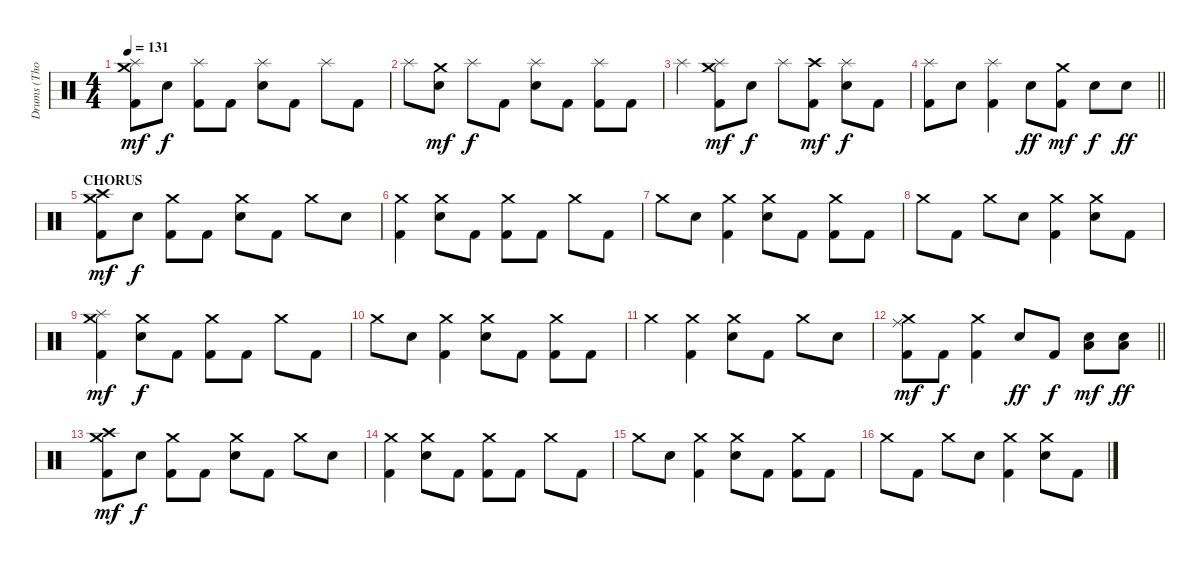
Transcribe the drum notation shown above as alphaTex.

\track ("Drums (Thomas Haake)" "Drums (Tho") {instrument percussion}
\staff {score}
\articulation defaults
\ts (4 4)
\tempo 131
\clef neutral
\ks c
("Splash (hit)" "Crash medium (hit)" "Kick (hit) 2").8{dy mf} "Electric Snare (hit)".8{dy f} ("Splash (hit)" "Kick (hit) 2").8 "Kick (hit) 2".8 ("Splash (hit)" "Electric Snare (hit)").8 "Kick (hit) 2".8 "Splash (hit)".8 "Kick (hit) 2".8 |
"Splash (hit)".8 ("Crash medium (hit)" "Electric Snare (hit)").8{dy mf} "Splash (hit)".8{dy f} "Kick (hit) 2".8 ("Splash (hit)" "Electric Snare (hit)").8 "Kick (hit) 2".8 ("Splash (hit)" "Kick (hit) 2").8 "Kick (hit) 2".8 |
"Splash (hit)".4 ("Splash (hit)" "Crash medium (hit)" "Kick (hit) 2").8{dy mf} "Electric Snare (hit)".8{dy f} "Splash (hit)".8 ("Crash high (hit)" "Kick (hit) 2").8{dy mf} ("Splash (hit)" "Electric Snare (hit)").8{dy f} "Kick (hit) 2".8 |
\barLineRight lightlight
("Splash (hit)" "Kick (hit) 2").8 "Electric Snare (hit)".8 ("Splash (hit)" "Kick (hit) 2").4 "Electric Snare (hit)".8{dy ff} ("Crash medium (hit)" "Kick (hit) 2").8{dy mf} "Electric Snare (hit)".8{dy f} "Electric Snare (hit)".8{dy ff} |
\section ("" "CHORUS")
("Crash medium (hit)" "Crash high (hit)" "Kick (hit) 2").8{dy mf} "Electric Snare (hit)".8{dy f} ("Crash medium (hit)" "Kick (hit) 2").8 "Kick (hit) 2".8 ("Crash medium (hit)" "Electric Snare (hit)").8 "Kick (hit) 2".8 "Crash medium (hit)".8 "Electric Snare (hit)".8 |
("Crash medium (hit)" "Kick (hit) 2").4 ("Crash medium (hit)" "Electric Snare (hit)").8 "Kick (hit) 2".8 ("Crash medium (hit)" "Kick (hit) 2").8 "Kick (hit) 2".8 "Crash medium (hit)".8 "Kick (hit) 2".8 |
"Crash medium (hit)".8 "Electric Snare (hit)".8 ("Crash medium (hit)" "Kick (hit) 2").4 ("Crash medium (hit)" "Electric Snare (hit)").8 "Kick (hit) 2".8 ("Crash medium (hit)" "Kick (hit) 2").8 "Kick (hit) 2".8 |
"Crash medium (hit)".8 "Kick (hit) 2".8 "Crash medium (hit)".8 "Electric Snare (hit)".8 ("Crash medium (hit)" "Kick (hit) 2").4 ("Crash medium (hit)" "Electric Snare (hit)").8 "Kick (hit) 2".8 |
("Crash medium (hit)" "Splash (hit)" "Kick (hit) 2").4{dy mf} ("Crash medium (hit)" "Electric Snare (hit)").8{dy f} "Kick (hit) 2".8 ("Crash medium (hit)" "Kick (hit) 2").8 "Kick (hit) 2".8 "Crash medium (hit)".8 "Kick (hit) 2".8 |
"Crash medium (hit)".8 "Electric Snare (hit)".8 ("Crash medium (hit)" "Kick (hit) 2").4 ("Crash medium (hit)" "Electric Snare (hit)").8 "Kick (hit) 2".8 ("Crash medium (hit)" "Kick (hit) 2").8 "Kick (hit) 2".8 |
"Crash medium (hit)".4 ("Crash medium (hit)" "Kick (hit) 2").4 ("Crash medium (hit)" "Electric Snare (hit)").8 "Kick (hit) 2".8 "Crash medium (hit)".8 "Electric Snare (hit)".8 |
\barLineRight lightlight
("Crash medium (hit)" "Ride (middle)" "Kick (hit) 2").8{dy mf} "Kick (hit) 2".8{dy f} ("Crash medium (hit)" "Kick (hit) 2").4 "Electric Snare (hit)".8{dy ff} "Kick (hit) 2".8{dy f} ("Low Floor Tom (hit)" "Electric Snare (hit)").8{dy mf} ("Low Floor Tom (hit)" "Electric Snare (hit)").8{dy ff} |
("Crash medium (hit)" "Crash high (hit)" "Kick (hit) 2").8{dy mf} "Electric Snare (hit)".8{dy f} ("Crash medium (hit)" "Kick (hit) 2").8 "Kick (hit) 2".8 ("Crash medium (hit)" "Electric Snare (hit)").8 "Kick (hit) 2".8 "Crash medium (hit)".8 "Electric Snare (hit)".8 |
("Crash medium (hit)" "Kick (hit) 2").4 ("Crash medium (hit)" "Electric Snare (hit)").8 "Kick (hit) 2".8 ("Crash medium (hit)" "Kick (hit) 2").8 "Kick (hit) 2".8 "Crash medium (hit)".8 "Kick (hit) 2".8 |
"Crash medium (hit)".8 "Electric Snare (hit)".8 ("Crash medium (hit)" "Kick (hit) 2").4 ("Crash medium (hit)" "Electric Snare (hit)").8 "Kick (hit) 2".8 ("Crash medium (hit)" "Kick (hit) 2").8 "Kick (hit) 2".8 |
"Crash medium (hit)".8 "Kick (hit) 2".8 "Crash medium (hit)".8 "Electric Snare (hit)".8 ("Crash medium (hit)" "Kick (hit) 2").4 ("Crash medium (hit)" "Electric Snare (hit)").8 "Kick (hit) 2".8
